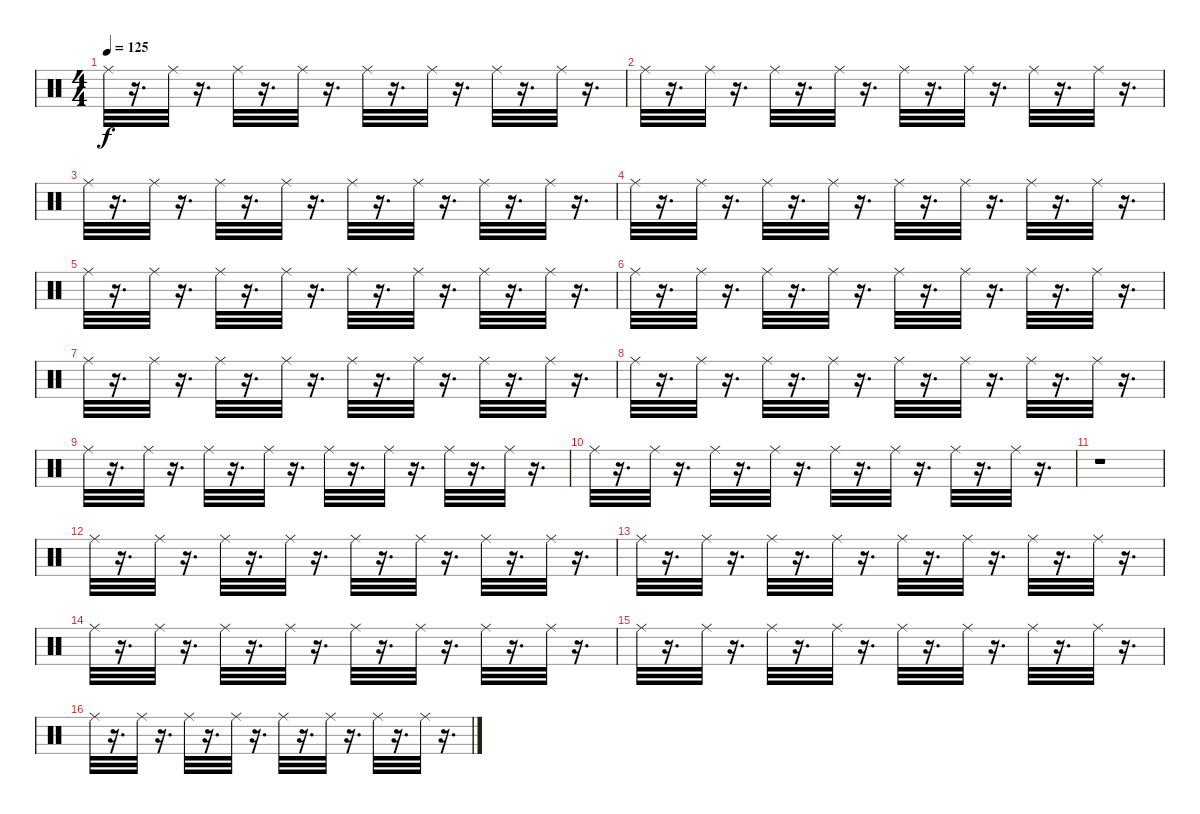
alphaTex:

\track "" {instrument percussion}
\staff {score}
\articulation defaults
\ts (4 4)
\tempo 125
\clef neutral
\ks c "Ride (middle)".32{dy f}
r.16{d} "Ride (middle)".32 r.16{d} "Ride (middle)".32 r.16{d} "Ride (middle)".32 r.16{d} "Ride (middle)".32 r.16{d} "Ride (middle)".32 r.16{d} "Ride (middle)".32 r.16{d} "Ride (middle)".32 r.16{d} |
"Ride (middle)".32 r.16{d} "Ride (middle)".32 r.16{d} "Ride (middle)".32 r.16{d} "Ride (middle)".32 r.16{d} "Ride (middle)".32 r.16{d} "Ride (middle)".32 r.16{d} "Ride (middle)".32 r.16{d} "Ride (middle)".32 r.16{d} |
"Ride (middle)".32 r.16{d} "Ride (middle)".32 r.16{d} "Ride (middle)".32 r.16{d} "Ride (middle)".32 r.16{d} "Ride (middle)".32 r.16{d} "Ride (middle)".32 r.16{d} "Ride (middle)".32 r.16{d} "Ride (middle)".32 r.16{d} |
"Ride (middle)".32 r.16{d} "Ride (middle)".32 r.16{d} "Ride (middle)".32 r.16{d} "Ride (middle)".32 r.16{d} "Ride (middle)".32 r.16{d} "Ride (middle)".32 r.16{d} "Ride (middle)".32 r.16{d} "Ride (middle)".32 r.16{d} |
"Ride (middle)".32 r.16{d} "Ride (middle)".32 r.16{d} "Ride (middle)".32 r.16{d} "Ride (middle)".32 r.16{d} "Ride (middle)".32 r.16{d} "Ride (middle)".32 r.16{d} "Ride (middle)".32 r.16{d} "Ride (middle)".32 r.16{d} |
"Ride (middle)".32 r.16{d} "Ride (middle)".32 r.16{d} "Ride (middle)".32 r.16{d} "Ride (middle)".32 r.16{d} "Ride (middle)".32 r.16{d} "Ride (middle)".32 r.16{d} "Ride (middle)".32 r.16{d} "Ride (middle)".32 r.16{d} |
"Ride (middle)".32 r.16{d} "Ride (middle)".32 r.16{d} "Ride (middle)".32 r.16{d} "Ride (middle)".32 r.16{d} "Ride (middle)".32 r.16{d} "Ride (middle)".32 r.16{d} "Ride (middle)".32 r.16{d} "Ride (middle)".32 r.16{d} |
"Ride (middle)".32 r.16{d} "Ride (middle)".32 r.16{d} "Ride (middle)".32 r.16{d} "Ride (middle)".32 r.16{d} "Ride (middle)".32 r.16{d} "Ride (middle)".32 r.16{d} "Ride (middle)".32 r.16{d} "Ride (middle)".32 r.16{d} |
"Ride (middle)".32 r.16{d} "Ride (middle)".32 r.16{d} "Ride (middle)".32 r.16{d} "Ride (middle)".32 r.16{d} "Ride (middle)".32 r.16{d} "Ride (middle)".32 r.16{d} "Ride (middle)".32 r.16{d} "Ride (middle)".32 r.16{d} |
"Ride (middle)".32 r.16{d} "Ride (middle)".32 r.16{d} "Ride (middle)".32 r.16{d} "Ride (middle)".32 r.16{d} "Ride (middle)".32 r.16{d} "Ride (middle)".32 r.16{d} "Ride (middle)".32 r.16{d} "Ride (middle)".32 r.16{d} |
r.1 |
"Ride (middle)".32 r.16{d} "Ride (middle)".32 r.16{d} "Ride (middle)".32 r.16{d} "Ride (middle)".32 r.16{d} "Ride (middle)".32 r.16{d} "Ride (middle)".32 r.16{d} "Ride (middle)".32 r.16{d} "Ride (middle)".32 r.16{d} |
"Ride (middle)".32 r.16{d} "Ride (middle)".32 r.16{d} "Ride (middle)".32 r.16{d} "Ride (middle)".32 r.16{d} "Ride (middle)".32 r.16{d} "Ride (middle)".32 r.16{d} "Ride (middle)".32 r.16{d} "Ride (middle)".32 r.16{d} |
"Ride (middle)".32 r.16{d} "Ride (middle)".32 r.16{d} "Ride (middle)".32 r.16{d} "Ride (middle)".32 r.16{d} "Ride (middle)".32 r.16{d} "Ride (middle)".32 r.16{d} "Ride (middle)".32 r.16{d} "Ride (middle)".32 r.16{d} |
"Ride (middle)".32 r.16{d} "Ride (middle)".32 r.16{d} "Ride (middle)".32 r.16{d} "Ride (middle)".32 r.16{d} "Ride (middle)".32 r.16{d} "Ride (middle)".32 r.16{d} "Ride (middle)".32 r.16{d} "Ride (middle)".32 r.16{d} |
"Ride (middle)".32 r.16{d} "Ride (middle)".32 r.16{d} "Ride (middle)".32 r.16{d} "Ride (middle)".32 r.16{d} "Ride (middle)".32 r.16{d} "Ride (middle)".32 r.16{d} "Ride (middle)".32 r.16{d} "Ride (middle)".32 r.16{d}
